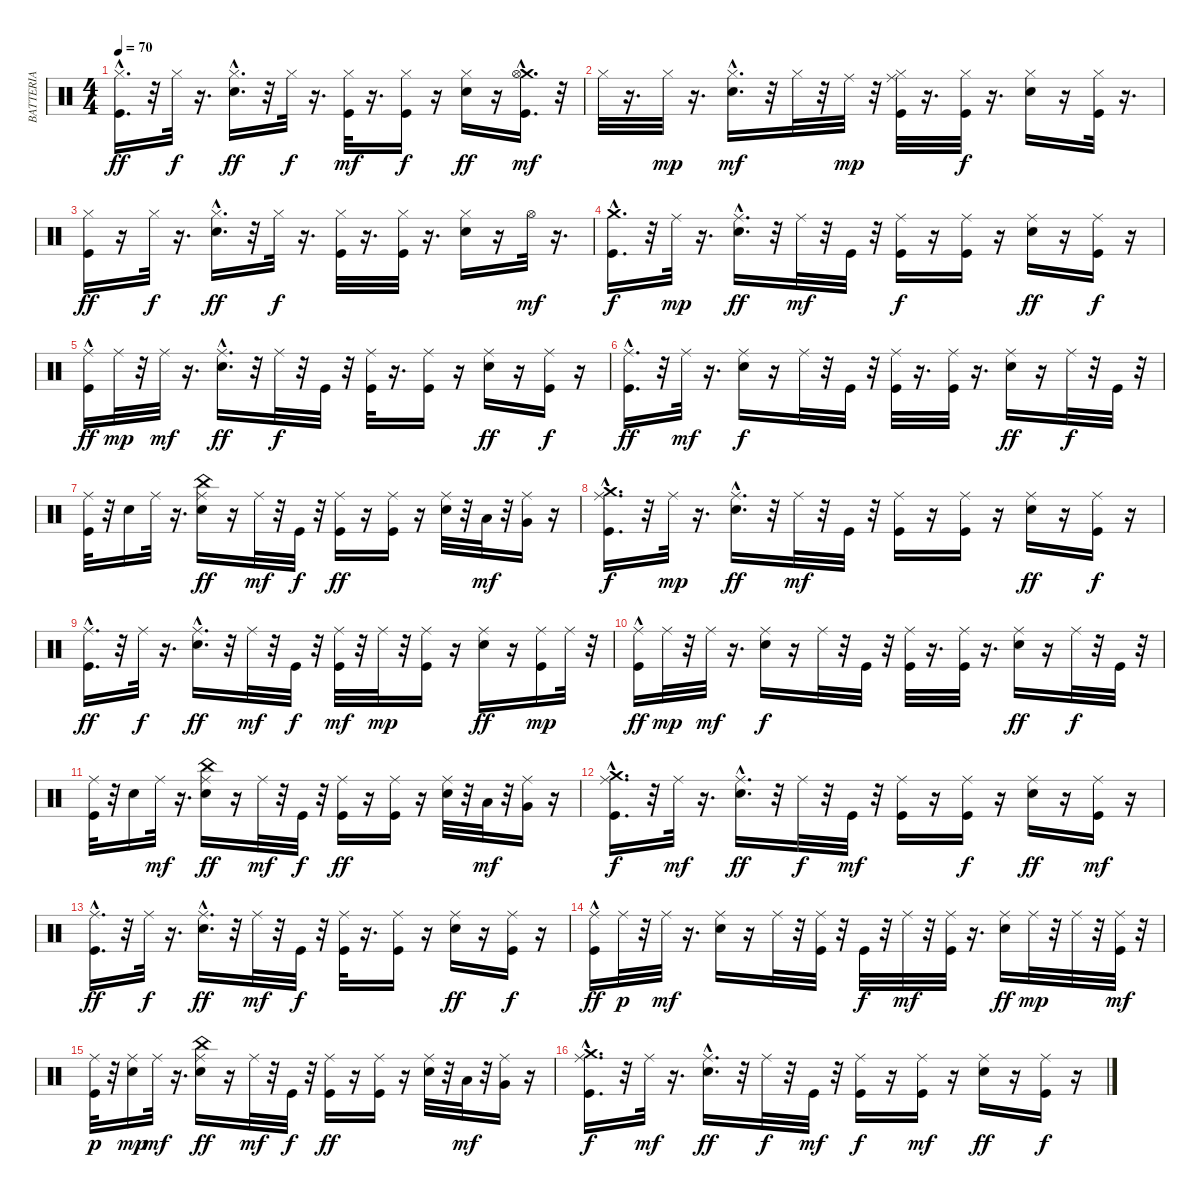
\track ("BATTERIA" "BATTERIA") {instrument percussion}
\staff {score}
\articulation defaults
\ts (4 4)
\tempo 70
\clef neutral
\ks c
("Kick (hit)"{hac} "Hi-Hat (closed)").16{d dy ff} r.32 "Hi-Hat (closed)".32{dy f} r.16{d} ("Snare (hit) 2"{hac} "Hi-Hat (closed)").16{d dy ff} r.32 "Hi-Hat (closed)".32{dy f} r.16{d} ("Kick (hit)" "Hi-Hat (closed)").32{dy mf} r.16{d} ("Kick (hit)" "Hi-Hat (closed)").16{dy f} r.16 ("Snare (hit) 2" "Hi-Hat (closed)").16{dy ff} r.16 ("Crash medium (hit)" "Kick (hit)"{hac} "Hi-Hat (open)").16{d dy mf} r.32 |
"Hi-Hat (closed)".32 r.16{d} "Hi-Hat (closed)".32{dy mp} r.16{d} ("Snare (hit) 2"{hac} "Hi-Hat (closed)").16{d dy mf} r.32 "Hi-Hat (closed)".32 r.32 "Ride (middle)".32{dy mp} r.32 ("Ride (middle)" "Hi-Hat (closed)" "Kick (hit)").32 r.16{d} ("Hi-Hat (closed)" "Kick (hit)").32{dy f} r.16{d} ("Hi-Hat (closed)" "Snare (hit) 2").16 r.16 ("Hi-Hat (closed)" "Kick (hit)").32 r.16{d} |
("Hi-Hat (closed)" "Kick (hit)").16{dy ff} r.16 "Hi-Hat (closed)".32{dy f} r.16{d} ("Hi-Hat (closed)" "Snare (hit) 2"{hac}).16{d dy ff} r.32 "Hi-Hat (closed)".32{dy f} r.16{d} ("Kick (hit)" "Hi-Hat (closed)").32 r.16{d} ("Hi-Hat (closed)" "Kick (hit)").32 r.16{d} ("Hi-Hat (closed)" "Snare (hit) 2").16 r.16 "Hi-Hat (open)".32{dy mf} r.16{d} |
("Kick (hit)"{hac} "Crash medium (hit)"{hac}).16{d dy f} r.32 "Ride (middle)".32{dy mp} r.16{d} ("Ride (middle)" "Snare (hit) 2"{hac}).16{d dy ff} r.32 "Ride (middle)".32{dy mf} r.32 "Kick (hit)".32 r.32 ("Ride (middle)" "Kick (hit)").16{dy f} r.16 ("Ride (middle)" "Kick (hit)").16 r.16 ("Ride (middle)" "Snare (hit) 2").16{dy ff} r.16 ("Ride (middle)" "Kick (hit)").16{dy f} r.16 |
("Ride (middle)" "Kick (hit)"{hac}).16{dy ff} "Ride (middle)".32{dy mp} r.32 "Ride (middle)".32{dy mf} r.16{d} ("Ride (middle)" "Snare (hit) 2"{hac}).16{d dy ff} r.32 "Ride (middle)".32{dy f} r.32 "Kick (hit)".32 r.32 ("Ride (middle)" "Kick (hit)").32 r.16{d} ("Ride (middle)" "Kick (hit)").16 r.16 ("Ride (middle)" "Snare (hit) 2").16{dy ff} r.16 ("Ride (middle)" "Kick (hit)").16{dy f} r.16 |
("Ride (middle)" "Kick (hit)"{hac}).16{d dy ff} r.32 "Ride (middle)".32{dy mf} r.16{d} ("Ride (middle)" "Snare (hit) 2").16{dy f} r.16 "Ride (middle)".32 r.32 "Kick (hit)".32 r.32 ("Ride (middle)" "Kick (hit)").32 r.16{d} ("Ride (middle)" "Kick (hit)").32 r.16{d} ("Ride (middle)" "Snare (hit) 2").16{dy ff} r.16 "Ride (middle)".32{dy f} r.32 "Kick (hit)".32 r.32 |
("Ride (middle)" "Kick (hit)").32 r.32 "Snare (hit) 2".16 "Ride (middle)".32 r.16{d} ("Ride (middle)" "China (hit)" "Snare (hit) 2").16{dy ff} r.16 "Ride (middle)".32{dy mf} r.32 "Kick (hit)".32{dy f} r.32 ("Ride (middle)" "Kick (hit)").16{dy ff} r.16 ("Ride (middle)" "Kick (hit)").16 r.16 ("Ride (middle)" "Snare (hit) 2").32 r.32 "Low Tom (hit)".32{dy mf} r.32 ("Ride (middle)" "Very Low Tom (hit)").16 r.16 |
("Ride (middle)" "Kick (hit)"{hac} "Crash medium (hit)"{hac}).16{d dy f} r.32 "Ride (middle)".32{dy mp} r.16{d} ("Ride (middle)" "Snare (hit) 2"{hac}).16{d dy ff} r.32 "Ride (middle)".32{dy mf} r.32 "Kick (hit)".32 r.32 ("Ride (middle)" "Kick (hit)").16 r.16 ("Ride (middle)" "Kick (hit)").16 r.16 ("Ride (middle)" "Snare (hit) 2").16{dy ff} r.16 ("Ride (middle)" "Kick (hit)").16{dy f} r.16 |
("Ride (middle)" "Kick (hit)"{hac}).16{d dy ff} r.32 "Ride (middle)".32{dy f} r.16{d} ("Ride (middle)" "Snare (hit) 2"{hac}).16{d dy ff} r.32 "Ride (middle)".32{dy mf} r.32 "Kick (hit)".32{dy f} r.32 ("Ride (middle)" "Kick (hit)").32{dy mf} r.32 "Ride (middle)".32{dy mp} r.32 ("Ride (middle)" "Kick (hit)").16 r.16 ("Ride (middle)" "Snare (hit) 2").16{dy ff} r.16 ("Ride (middle)" "Kick (hit)").16{dy mp} "Ride (middle)".32 r.32 |
("Ride (middle)" "Kick (hit)"{hac}).16{dy ff} "Ride (middle)".32{dy mp} r.32 "Ride (middle)".32{dy mf} r.16{d} ("Ride (middle)" "Snare (hit) 2").16{dy f} r.16 "Ride (middle)".32 r.32 "Kick (hit)".32 r.32 ("Ride (middle)" "Kick (hit)").32 r.16{d} ("Ride (middle)" "Kick (hit)").32 r.16{d} ("Ride (middle)" "Snare (hit) 2").16{dy ff} r.16 "Ride (middle)".32{dy f} r.32 "Kick (hit)".32 r.32 |
("Ride (middle)" "Kick (hit)").32 r.32 "Snare (hit) 2".16 "Ride (middle)".32{dy mf} r.16{d} ("Ride (middle)" "China (hit)" "Snare (hit) 2").16{dy ff} r.16 "Ride (middle)".32{dy mf} r.32 "Kick (hit)".32{dy f} r.32 ("Ride (middle)" "Kick (hit)").16{dy ff} r.16 ("Ride (middle)" "Kick (hit)").16 r.16 ("Ride (middle)" "Snare (hit) 2").32 r.32 "Low Tom (hit)".32{dy mf} r.32 ("Ride (middle)" "Very Low Tom (hit)").16 r.16 |
("Ride (middle)" "Kick (hit)"{hac} "Crash medium (hit)"{hac}).16{d dy f} r.32 "Ride (middle)".32{dy mf} r.16{d} ("Ride (middle)" "Snare (hit) 2"{hac}).16{d dy ff} r.32 "Ride (middle)".32{dy f} r.32 "Kick (hit)".32{dy mf} r.32 ("Ride (middle)" "Kick (hit)").16 r.16 ("Ride (middle)" "Kick (hit)").16{dy f} r.16 ("Ride (middle)" "Snare (hit) 2").16{dy ff} r.16 ("Ride (middle)" "Kick (hit)").16{dy mf} r.16 |
("Ride (middle)" "Kick (hit)"{hac}).16{d dy ff} r.32 "Ride (middle)".32{dy f} r.16{d} ("Ride (middle)" "Snare (hit) 2"{hac}).16{d dy ff} r.32 "Ride (middle)".32{dy mf} r.32 "Kick (hit)".32{dy f} r.32 ("Ride (middle)" "Kick (hit)").32 r.16{d} ("Ride (middle)" "Kick (hit)").16 r.16 ("Ride (middle)" "Snare (hit) 2").16{dy ff} r.16 ("Ride (middle)" "Kick (hit)").16{dy f} r.16 |
("Ride (middle)" "Kick (hit)"{hac}).16{dy ff} "Ride (middle)".32{dy p} r.32 "Ride (middle)".32{dy mf} r.16{d} ("Ride (middle)" "Snare (hit) 2").16 r.16 "Ride (middle)".32 r.32 ("Ride (middle)" "Kick (hit)").32 r.32 "Kick (hit)".32{dy f} r.32 "Ride (middle)".32{dy mf} r.32 ("Ride (middle)" "Kick (hit)").32 r.16{d} ("Ride (middle)" "Snare (hit) 2").16{dy ff} "Ride (middle)".32{dy mp} r.32 "Ride (middle)".32 r.32 ("Ride (middle)" "Kick (hit)").32{dy mf} r.32 |
("Ride (middle)" "Kick (hit)").32{dy p} r.32 ("Ride (middle)" "Snare (hit) 2").16{dy mp} "Ride (middle)".32{dy mf} r.16{d} ("Ride (middle)" "China (hit)" "Snare (hit) 2").16{dy ff} r.16 "Ride (middle)".32{dy mf} r.32 "Kick (hit)".32{dy f} r.32 ("Ride (middle)" "Kick (hit)").16{dy ff} r.16 ("Ride (middle)" "Kick (hit)").16 r.16 ("Ride (middle)" "Snare (hit) 2").32 r.32 "Low Tom (hit)".32{dy mf} r.32 ("Ride (middle)" "Very Low Tom (hit)").16 r.16 |
("Ride (middle)" "Kick (hit)"{hac} "Crash medium (hit)"{hac}).16{d dy f} r.32 "Ride (middle)".32{dy mf} r.16{d} ("Ride (middle)" "Snare (hit) 2"{hac}).16{d dy ff} r.32 "Ride (middle)".32{dy f} r.32 "Kick (hit)".32{dy mf} r.32 ("Ride (middle)" "Kick (hit)").16{dy f} r.16 ("Ride (middle)" "Kick (hit)").16{dy mf} r.16 ("Ride (middle)" "Snare (hit) 2").16{dy ff} r.16 ("Ride (middle)" "Kick (hit)").16{dy f} r.16
